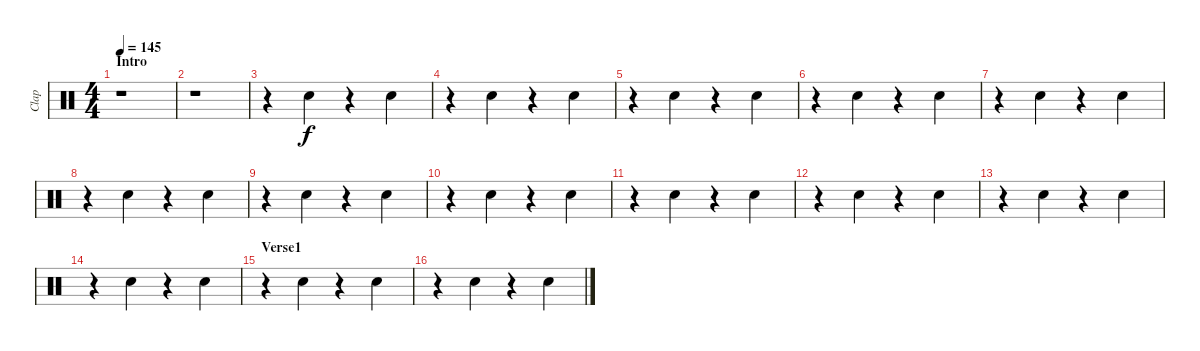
\track ("Clap" "Clap") {instrument percussion}
\staff {score}
\articulation defaults
\ts (4 4)
\section ("" "Intro")
\tempo 145
\clef neutral
\ks c
r.1{dy f} |
r.1 |
r.4 "Hand Clap (hit)".4 r.4 "Hand Clap (hit)".4 |
r.4 "Hand Clap (hit)".4 r.4 "Hand Clap (hit)".4 |
r.4 "Hand Clap (hit)".4 r.4 "Hand Clap (hit)".4 |
r.4 "Hand Clap (hit)".4 r.4 "Hand Clap (hit)".4 |
r.4 "Hand Clap (hit)".4 r.4 "Hand Clap (hit)".4 |
r.4 "Hand Clap (hit)".4 r.4 "Hand Clap (hit)".4 |
r.4 "Hand Clap (hit)".4 r.4 "Hand Clap (hit)".4 |
r.4 "Hand Clap (hit)".4 r.4 "Hand Clap (hit)".4 |
r.4 "Hand Clap (hit)".4 r.4 "Hand Clap (hit)".4 |
r.4 "Hand Clap (hit)".4 r.4 "Hand Clap (hit)".4 |
r.4 "Hand Clap (hit)".4 r.4 "Hand Clap (hit)".4 |
r.4 "Hand Clap (hit)".4 r.4 "Hand Clap (hit)".4 |
\section ("" "Verse1")
r.4 "Hand Clap (hit)".4 r.4 "Hand Clap (hit)".4 |
r.4 "Hand Clap (hit)".4 r.4 "Hand Clap (hit)".4
